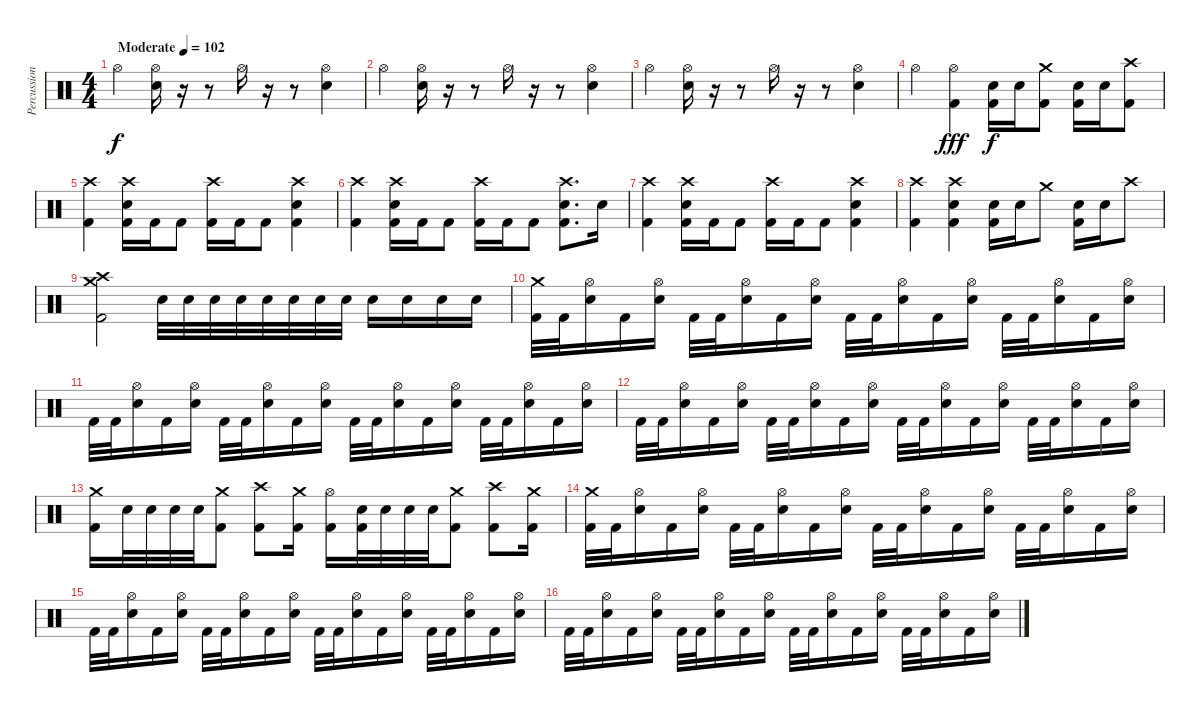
\track ("Percussion" "Percussion") {instrument percussion}
\staff {score}
\articulation defaults
\ts (4 4)
\tempo (102 "Moderate")
\clef neutral
\ks c "Hi-Hat (open)".4{dy f}
("Hi-Hat (open)" "Electric Snare (hit)").16 r.16 r.8 "Hi-Hat (open)".16 r.16 r.8 ("Hi-Hat (open)" "Electric Snare (hit)").4 |
"Hi-Hat (open)".4 ("Hi-Hat (open)" "Electric Snare (hit)").16 r.16 r.8 "Hi-Hat (open)".16 r.16 r.8 ("Hi-Hat (open)" "Electric Snare (hit)").4 |
"Hi-Hat (open)".4 ("Hi-Hat (open)" "Electric Snare (hit)").16 r.16 r.8 "Hi-Hat (open)".16 r.16 r.8 ("Hi-Hat (open)" "Electric Snare (hit)").4 |
"Hi-Hat (open)".4 ("Hi-Hat (open)" "Kick (hit) 2").4{dy fff} ("Electric Snare (hit)" "Kick (hit) 2").16{dy f} "Electric Snare (hit)".16 ("Crash medium (hit)" "Kick (hit) 2").8 ("Electric Snare (hit)" "Kick (hit) 2").16 "Electric Snare (hit)".16 ("Crash high (hit)" "Kick (hit) 2").8 |
("Crash high (hit)" "Kick (hit) 2").4 ("Crash high (hit)" "Electric Snare (hit)" "Kick (hit) 2").16 "Kick (hit) 2".16 "Kick (hit) 2".8 ("Crash high (hit)" "Kick (hit) 2").16 "Kick (hit) 2".16 "Kick (hit) 2".8 ("Crash high (hit)" "Electric Snare (hit)" "Kick (hit) 2").4 |
("Crash high (hit)" "Kick (hit) 2").4 ("Crash high (hit)" "Electric Snare (hit)" "Kick (hit) 2").16 "Kick (hit) 2".16 "Kick (hit) 2".8 ("Crash high (hit)" "Kick (hit) 2").16 "Kick (hit) 2".16 "Kick (hit) 2".8 ("Crash high (hit)" "Electric Snare (hit)" "Kick (hit) 2").8{d} "Electric Snare (hit)".16 |
("Crash high (hit)" "Kick (hit) 2").4 ("Crash high (hit)" "Electric Snare (hit)" "Kick (hit) 2").16 "Kick (hit) 2".16 "Kick (hit) 2".8 ("Crash high (hit)" "Kick (hit) 2").16 "Kick (hit) 2".16 "Kick (hit) 2".8 ("Crash high (hit)" "Electric Snare (hit)" "Kick (hit) 2").4 |
("Crash high (hit)" "Kick (hit) 2").4 ("Crash high (hit)" "Electric Snare (hit)" "Kick (hit) 2").4 ("Electric Snare (hit)" "Kick (hit) 2").16 "Electric Snare (hit)".16 "Crash medium (hit)".8 ("Electric Snare (hit)" "Kick (hit) 2").16 "Electric Snare (hit)".16 "Crash high (hit)".8 |
("Crash high (hit)" "Crash medium (hit)" "Kick (hit) 2").2 "Electric Snare (hit)".32 "Electric Snare (hit)".32 "Electric Snare (hit)".32 "Electric Snare (hit)".32 "Electric Snare (hit)".32 "Electric Snare (hit)".32 "Electric Snare (hit)".32 "Electric Snare (hit)".32 "Electric Snare (hit)".16 "Electric Snare (hit)".16 "Electric Snare (hit)".16 "Electric Snare (hit)".16 |
("Crash medium (hit)" "Kick (hit) 2").32 "Kick (hit) 2".32 ("Hi-Hat (open)" "Electric Snare (hit)").16 "Kick (hit) 2".16 ("Hi-Hat (open)" "Electric Snare (hit)").16 "Kick (hit) 2".32 "Kick (hit) 2".32 ("Hi-Hat (open)" "Electric Snare (hit)").16 "Kick (hit) 2".16 ("Hi-Hat (open)" "Electric Snare (hit)").16 "Kick (hit) 2".32 "Kick (hit) 2".32 ("Hi-Hat (open)" "Electric Snare (hit)").16 "Kick (hit) 2".16 ("Hi-Hat (open)" "Electric Snare (hit)").16 "Kick (hit) 2".32 "Kick (hit) 2".32 ("Hi-Hat (open)" "Electric Snare (hit)").16 "Kick (hit) 2".16 ("Hi-Hat (open)" "Electric Snare (hit)").16 |
"Kick (hit) 2".32 "Kick (hit) 2".32 ("Hi-Hat (open)" "Electric Snare (hit)").16 "Kick (hit) 2".16 ("Hi-Hat (open)" "Electric Snare (hit)").16 "Kick (hit) 2".32 "Kick (hit) 2".32 ("Hi-Hat (open)" "Electric Snare (hit)").16 "Kick (hit) 2".16 ("Hi-Hat (open)" "Electric Snare (hit)").16 "Kick (hit) 2".32 "Kick (hit) 2".32 ("Hi-Hat (open)" "Electric Snare (hit)").16 "Kick (hit) 2".16 ("Hi-Hat (open)" "Electric Snare (hit)").16 "Kick (hit) 2".32 "Kick (hit) 2".32 ("Hi-Hat (open)" "Electric Snare (hit)").16 "Kick (hit) 2".16 ("Hi-Hat (open)" "Electric Snare (hit)").16 |
"Kick (hit) 2".32 "Kick (hit) 2".32 ("Hi-Hat (open)" "Electric Snare (hit)").16 "Kick (hit) 2".16 ("Hi-Hat (open)" "Electric Snare (hit)").16 "Kick (hit) 2".32 "Kick (hit) 2".32 ("Hi-Hat (open)" "Electric Snare (hit)").16 "Kick (hit) 2".16 ("Hi-Hat (open)" "Electric Snare (hit)").16 "Kick (hit) 2".32 "Kick (hit) 2".32 ("Hi-Hat (open)" "Electric Snare (hit)").16 "Kick (hit) 2".16 ("Hi-Hat (open)" "Electric Snare (hit)").16 "Kick (hit) 2".32 "Kick (hit) 2".32 ("Hi-Hat (open)" "Electric Snare (hit)").16 "Kick (hit) 2".16 ("Hi-Hat (open)" "Electric Snare (hit)").16 |
("Crash medium (hit)" "Kick (hit) 2").16 "Electric Snare (hit)".32 "Electric Snare (hit)".32 "Electric Snare (hit)".32 "Electric Snare (hit)".32 ("Crash medium (hit)" "Kick (hit) 2").8 ("Crash high (hit)" "Kick (hit) 2").8 ("Crash medium (hit)" "Kick (hit) 2").16 ("Hi-Hat (open)" "Kick (hit) 2").16 ("Electric Snare (hit)" "Kick (hit) 2").32 "Electric Snare (hit)".32 "Electric Snare (hit)".32 "Electric Snare (hit)".32 ("Crash medium (hit)" "Kick (hit) 2").8 ("Crash high (hit)" "Kick (hit) 2").8 ("Crash medium (hit)" "Kick (hit) 2").16 |
("Crash medium (hit)" "Kick (hit) 2").32 "Kick (hit) 2".32 ("Hi-Hat (open)" "Electric Snare (hit)").16 "Kick (hit) 2".16 ("Hi-Hat (open)" "Electric Snare (hit)").16 "Kick (hit) 2".32 "Kick (hit) 2".32 ("Hi-Hat (open)" "Electric Snare (hit)").16 "Kick (hit) 2".16 ("Hi-Hat (open)" "Electric Snare (hit)").16 "Kick (hit) 2".32 "Kick (hit) 2".32 ("Hi-Hat (open)" "Electric Snare (hit)").16 "Kick (hit) 2".16 ("Hi-Hat (open)" "Electric Snare (hit)").16 "Kick (hit) 2".32 "Kick (hit) 2".32 ("Hi-Hat (open)" "Electric Snare (hit)").16 "Kick (hit) 2".16 ("Hi-Hat (open)" "Electric Snare (hit)").16 |
"Kick (hit) 2".32 "Kick (hit) 2".32 ("Hi-Hat (open)" "Electric Snare (hit)").16 "Kick (hit) 2".16 ("Hi-Hat (open)" "Electric Snare (hit)").16 "Kick (hit) 2".32 "Kick (hit) 2".32 ("Hi-Hat (open)" "Electric Snare (hit)").16 "Kick (hit) 2".16 ("Hi-Hat (open)" "Electric Snare (hit)").16 "Kick (hit) 2".32 "Kick (hit) 2".32 ("Hi-Hat (open)" "Electric Snare (hit)").16 "Kick (hit) 2".16 ("Hi-Hat (open)" "Electric Snare (hit)").16 "Kick (hit) 2".32 "Kick (hit) 2".32 ("Hi-Hat (open)" "Electric Snare (hit)").16 "Kick (hit) 2".16 ("Hi-Hat (open)" "Electric Snare (hit)").16 |
"Kick (hit) 2".32 "Kick (hit) 2".32 ("Hi-Hat (open)" "Electric Snare (hit)").16 "Kick (hit) 2".16 ("Hi-Hat (open)" "Electric Snare (hit)").16 "Kick (hit) 2".32 "Kick (hit) 2".32 ("Hi-Hat (open)" "Electric Snare (hit)").16 "Kick (hit) 2".16 ("Hi-Hat (open)" "Electric Snare (hit)").16 "Kick (hit) 2".32 "Kick (hit) 2".32 ("Hi-Hat (open)" "Electric Snare (hit)").16 "Kick (hit) 2".16 ("Hi-Hat (open)" "Electric Snare (hit)").16 "Kick (hit) 2".32 "Kick (hit) 2".32 ("Hi-Hat (open)" "Electric Snare (hit)").16 "Kick (hit) 2".16 ("Hi-Hat (open)" "Electric Snare (hit)").16
